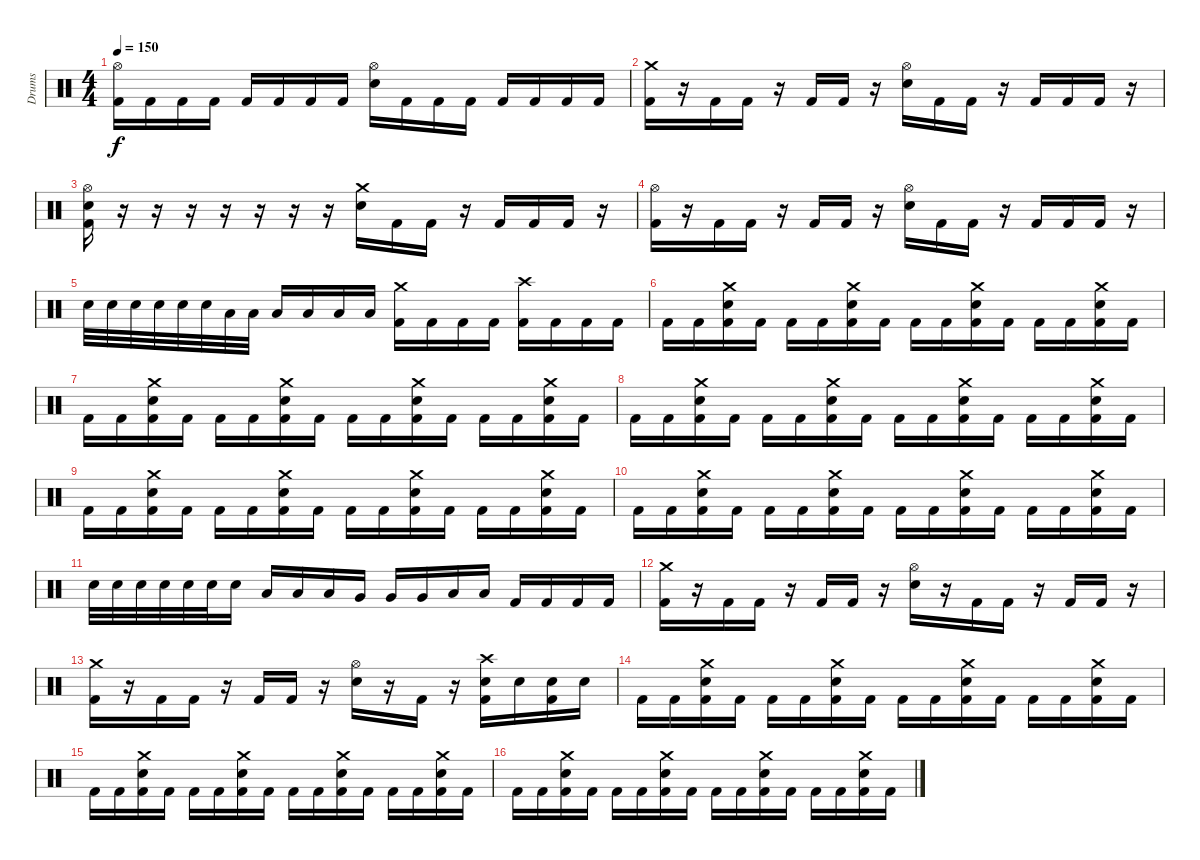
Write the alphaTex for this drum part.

\track ("Drums" "Drums") {instrument percussion}
\staff {score}
\articulation defaults
\ts (4 4)
\tempo 150
\clef neutral
\ks c
("Hi-Hat (open)" "Kick (hit) 2").16{dy f} "Kick (hit) 2".16 "Kick (hit) 2".16 "Kick (hit) 2".16 "Kick (hit) 2".16 "Kick (hit) 2".16 "Kick (hit) 2".16 "Kick (hit) 2".16 ("Hi-Hat (open)" "Snare (hit) 2").16 "Kick (hit) 2".16 "Kick (hit) 2".16 "Kick (hit) 2".16 "Kick (hit) 2".16 "Kick (hit) 2".16 "Kick (hit) 2".16 "Kick (hit) 2".16 |
("Crash medium (hit)" "Kick (hit) 2").16 r.16 "Kick (hit) 2".16 "Kick (hit) 2".16 r.16 "Kick (hit) 2".16 "Kick (hit) 2".16 r.16 ("Hi-Hat (open)" "Snare (hit) 2").16 "Kick (hit) 2".16 "Kick (hit) 2".16 r.16 "Kick (hit) 2".16 "Kick (hit) 2".16 "Kick (hit) 2".16 r.16 |
("Hi-Hat (open)" "Snare (hit) 2" "Kick (hit) 2").16 r.16 r.16 r.16 r.16 r.16 r.16 r.16 ("Crash medium (hit)" "Snare (hit) 2").16 "Kick (hit) 2".16 "Kick (hit) 2".16 r.16 "Kick (hit) 2".16 "Kick (hit) 2".16 "Kick (hit) 2".16 r.16 |
("Hi-Hat (open)" "Kick (hit) 2").16 r.16 "Kick (hit) 2".16 "Kick (hit) 2".16 r.16 "Kick (hit) 2".16 "Kick (hit) 2".16 r.16 ("Hi-Hat (open)" "Snare (hit) 2").16 "Kick (hit) 2".16 "Kick (hit) 2".16 r.16 "Kick (hit) 2".16 "Kick (hit) 2".16 "Kick (hit) 2".16 r.16 |
"Snare (hit) 2".32 "Snare (hit) 2".32 "Snare (hit) 2".32 "Snare (hit) 2".32 "Snare (hit) 2".32 "Snare (hit) 2".32 "Low Floor Tom (hit)".32 "Low Floor Tom (hit)".32 "Low Floor Tom (hit)".16 "Low Floor Tom (hit)".16 "Low Floor Tom (hit)".16 "Low Floor Tom (hit)".16 ("Crash medium (hit)" "Kick (hit) 2").16 "Kick (hit) 2".16 "Kick (hit) 2".16 "Kick (hit) 2".16 ("Crash high (hit)" "Kick (hit) 2").16 "Kick (hit) 2".16 "Kick (hit) 2".16 "Kick (hit) 2".16 |
"Kick (hit) 2".16 "Kick (hit) 2".16 ("Crash medium (hit)" "Snare (hit) 2" "Kick (hit) 2").16 "Kick (hit) 2".16 "Kick (hit) 2".16 "Kick (hit) 2".16 ("Crash medium (hit)" "Snare (hit) 2" "Kick (hit) 2").16 "Kick (hit) 2".16 "Kick (hit) 2".16 "Kick (hit) 2".16 ("Crash medium (hit)" "Snare (hit) 2" "Kick (hit) 2").16 "Kick (hit) 2".16 "Kick (hit) 2".16 "Kick (hit) 2".16 ("Crash medium (hit)" "Snare (hit) 2" "Kick (hit) 2").16 "Kick (hit) 2".16 |
"Kick (hit) 2".16 "Kick (hit) 2".16 ("Crash medium (hit)" "Snare (hit) 2" "Kick (hit) 2").16 "Kick (hit) 2".16 "Kick (hit) 2".16 "Kick (hit) 2".16 ("Crash medium (hit)" "Snare (hit) 2" "Kick (hit) 2").16 "Kick (hit) 2".16 "Kick (hit) 2".16 "Kick (hit) 2".16 ("Crash medium (hit)" "Snare (hit) 2" "Kick (hit) 2").16 "Kick (hit) 2".16 "Kick (hit) 2".16 "Kick (hit) 2".16 ("Crash medium (hit)" "Snare (hit) 2" "Kick (hit) 2").16 "Kick (hit) 2".16 |
"Kick (hit) 2".16 "Kick (hit) 2".16 ("Crash medium (hit)" "Snare (hit) 2" "Kick (hit) 2").16 "Kick (hit) 2".16 "Kick (hit) 2".16 "Kick (hit) 2".16 ("Crash medium (hit)" "Snare (hit) 2" "Kick (hit) 2").16 "Kick (hit) 2".16 "Kick (hit) 2".16 "Kick (hit) 2".16 ("Crash medium (hit)" "Snare (hit) 2" "Kick (hit) 2").16 "Kick (hit) 2".16 "Kick (hit) 2".16 "Kick (hit) 2".16 ("Crash medium (hit)" "Snare (hit) 2" "Kick (hit) 2").16 "Kick (hit) 2".16 |
"Kick (hit) 2".16 "Kick (hit) 2".16 ("Crash medium (hit)" "Snare (hit) 2" "Kick (hit) 2").16 "Kick (hit) 2".16 "Kick (hit) 2".16 "Kick (hit) 2".16 ("Crash medium (hit)" "Snare (hit) 2" "Kick (hit) 2").16 "Kick (hit) 2".16 "Kick (hit) 2".16 "Kick (hit) 2".16 ("Crash medium (hit)" "Snare (hit) 2" "Kick (hit) 2").16 "Kick (hit) 2".16 "Kick (hit) 2".16 "Kick (hit) 2".16 ("Crash medium (hit)" "Snare (hit) 2" "Kick (hit) 2").16 "Kick (hit) 2".16 |
"Kick (hit) 2".16 "Kick (hit) 2".16 ("Crash medium (hit)" "Snare (hit) 2" "Kick (hit) 2").16 "Kick (hit) 2".16 "Kick (hit) 2".16 "Kick (hit) 2".16 ("Crash medium (hit)" "Snare (hit) 2" "Kick (hit) 2").16 "Kick (hit) 2".16 "Kick (hit) 2".16 "Kick (hit) 2".16 ("Crash medium (hit)" "Snare (hit) 2" "Kick (hit) 2").16 "Kick (hit) 2".16 "Kick (hit) 2".16 "Kick (hit) 2".16 ("Crash medium (hit)" "Snare (hit) 2" "Kick (hit) 2").16 "Kick (hit) 2".16 |
"Snare (hit) 2".32 "Snare (hit) 2".32 "Snare (hit) 2".32 "Snare (hit) 2".32 "Snare (hit) 2".32 "Snare (hit) 2".32 "Snare (hit) 2".16 "Low Tom (hit)".16 "Low Tom (hit)".16 "Low Tom (hit)".16 "Very Low Tom (hit)".16 "Very Low Tom (hit)".16 "Very Low Tom (hit)".16 "Low Floor Tom (hit)".16 "Low Floor Tom (hit)".16 "Kick (hit) 2".16 "Kick (hit) 2".16 "Kick (hit) 2".16 "Kick (hit) 2".16 |
("Crash medium (hit)" "Kick (hit) 2").16 r.16 "Kick (hit) 2".16 "Kick (hit) 2".16 r.16 "Kick (hit) 2".16 "Kick (hit) 2".16 r.16 ("Hi-Hat (open)" "Snare (hit) 2").16 r.16 "Kick (hit) 2".16 "Kick (hit) 2".16 r.16 "Kick (hit) 2".16 "Kick (hit) 2".16 r.16 |
("Crash medium (hit)" "Kick (hit) 2").16 r.16 "Kick (hit) 2".16 "Kick (hit) 2".16 r.16 "Kick (hit) 2".16 "Kick (hit) 2".16 r.16 ("Hi-Hat (open)" "Snare (hit) 2").16 r.16 "Kick (hit) 2".16 r.16 ("Crash high (hit)" "Snare (hit) 2" "Kick (hit) 2").16 "Snare (hit) 2".16 ("Snare (hit) 2" "Kick (hit) 2").16 "Snare (hit) 2".16 |
"Kick (hit) 2".16 "Kick (hit) 2".16 ("Crash medium (hit)" "Snare (hit) 2" "Kick (hit) 2").16 "Kick (hit) 2".16 "Kick (hit) 2".16 "Kick (hit) 2".16 ("Crash medium (hit)" "Snare (hit) 2" "Kick (hit) 2").16 "Kick (hit) 2".16 "Kick (hit) 2".16 "Kick (hit) 2".16 ("Crash medium (hit)" "Snare (hit) 2" "Kick (hit) 2").16 "Kick (hit) 2".16 "Kick (hit) 2".16 "Kick (hit) 2".16 ("Crash medium (hit)" "Snare (hit) 2" "Kick (hit) 2").16 "Kick (hit) 2".16 |
"Kick (hit) 2".16 "Kick (hit) 2".16 ("Crash medium (hit)" "Snare (hit) 2" "Kick (hit) 2").16 "Kick (hit) 2".16 "Kick (hit) 2".16 "Kick (hit) 2".16 ("Crash medium (hit)" "Snare (hit) 2" "Kick (hit) 2").16 "Kick (hit) 2".16 "Kick (hit) 2".16 "Kick (hit) 2".16 ("Crash medium (hit)" "Snare (hit) 2" "Kick (hit) 2").16 "Kick (hit) 2".16 "Kick (hit) 2".16 "Kick (hit) 2".16 ("Crash medium (hit)" "Snare (hit) 2" "Kick (hit) 2").16 "Kick (hit) 2".16 |
"Kick (hit) 2".16 "Kick (hit) 2".16 ("Crash medium (hit)" "Snare (hit) 2" "Kick (hit) 2").16 "Kick (hit) 2".16 "Kick (hit) 2".16 "Kick (hit) 2".16 ("Crash medium (hit)" "Snare (hit) 2" "Kick (hit) 2").16 "Kick (hit) 2".16 "Kick (hit) 2".16 "Kick (hit) 2".16 ("Crash medium (hit)" "Snare (hit) 2" "Kick (hit) 2").16 "Kick (hit) 2".16 "Kick (hit) 2".16 "Kick (hit) 2".16 ("Crash medium (hit)" "Snare (hit) 2" "Kick (hit) 2").16 "Kick (hit) 2".16
